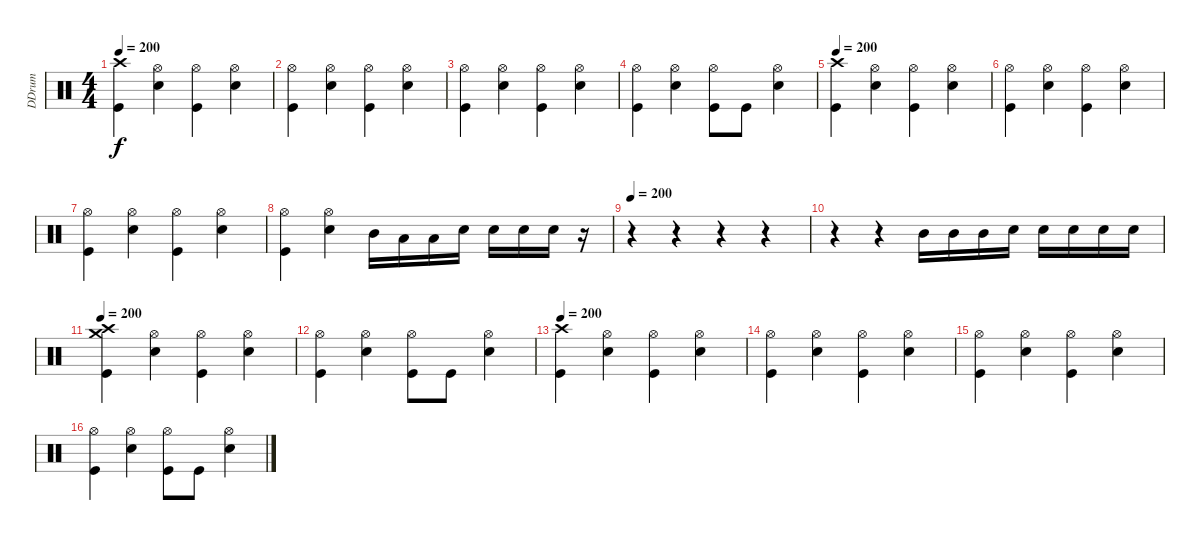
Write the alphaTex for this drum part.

\track ("DDrum" "DDrum") {instrument percussion}
\staff {score}
\articulation defaults
\ts (4 4)
\tempo 200
\clef neutral
\ks c
("Crash high (hit)" "Kick (hit)").4{dy f} ("Hi-Hat (open)" "Electric Snare (hit)").4 ("Hi-Hat (open)" "Kick (hit)").4 ("Hi-Hat (open)" "Electric Snare (hit)").4 |
("Hi-Hat (open)" "Kick (hit)").4 ("Hi-Hat (open)" "Electric Snare (hit)").4 ("Hi-Hat (open)" "Kick (hit)").4 ("Hi-Hat (open)" "Electric Snare (hit)").4 |
("Hi-Hat (open)" "Kick (hit)").4 ("Hi-Hat (open)" "Electric Snare (hit)").4 ("Hi-Hat (open)" "Kick (hit)").4 ("Hi-Hat (open)" "Electric Snare (hit)").4 |
("Hi-Hat (open)" "Kick (hit)").4 ("Hi-Hat (open)" "Electric Snare (hit)").4 ("Hi-Hat (open)" "Kick (hit)").8 "Kick (hit)".8 ("Hi-Hat (open)" "Electric Snare (hit)").4 |
\tempo 200
("Crash high (hit)" "Kick (hit)").4 ("Hi-Hat (open)" "Electric Snare (hit)").4 ("Hi-Hat (open)" "Kick (hit)").4 ("Hi-Hat (open)" "Electric Snare (hit)").4 |
("Hi-Hat (open)" "Kick (hit)").4 ("Hi-Hat (open)" "Electric Snare (hit)").4 ("Hi-Hat (open)" "Kick (hit)").4 ("Hi-Hat (open)" "Electric Snare (hit)").4 |
("Hi-Hat (open)" "Kick (hit)").4 ("Hi-Hat (open)" "Electric Snare (hit)").4 ("Hi-Hat (open)" "Kick (hit)").4 ("Hi-Hat (open)" "Electric Snare (hit)").4 |
("Hi-Hat (open)" "Kick (hit)").4 ("Hi-Hat (open)" "Electric Snare (hit)").4 "Mid Tom (hit)".16 "Low Tom (hit)".16 "Low Tom (hit)".16 "Electric Snare (hit)".16 "Electric Snare (hit)".16 "Electric Snare (hit)".16 "Electric Snare (hit)".16 r.16 |
\tempo 200
r.4 r.4 r.4 r.4 |
r.4 r.4 "Mid Tom (hit)".16 "Mid Tom (hit)".16 "Mid Tom (hit)".16 "Electric Snare (hit)".16 "Electric Snare (hit)".16 "Electric Snare (hit)".16 "Electric Snare (hit)".16 "Electric Snare (hit)".16 |
\tempo 200
("Crash medium (hit)" "Crash high (hit)" "Kick (hit)").4 ("Hi-Hat (open)" "Electric Snare (hit)").4 ("Hi-Hat (open)" "Kick (hit)").4 ("Hi-Hat (open)" "Electric Snare (hit)").4 |
("Hi-Hat (open)" "Kick (hit)").4 ("Hi-Hat (open)" "Electric Snare (hit)").4 ("Hi-Hat (open)" "Kick (hit)").8 "Kick (hit)".8 ("Hi-Hat (open)" "Electric Snare (hit)").4 |
\tempo 200
("Crash high (hit)" "Kick (hit)").4 ("Hi-Hat (open)" "Electric Snare (hit)").4 ("Hi-Hat (open)" "Kick (hit)").4 ("Hi-Hat (open)" "Electric Snare (hit)").4 |
("Hi-Hat (open)" "Kick (hit)").4 ("Hi-Hat (open)" "Electric Snare (hit)").4 ("Hi-Hat (open)" "Kick (hit)").4 ("Hi-Hat (open)" "Electric Snare (hit)").4 |
("Hi-Hat (open)" "Kick (hit)").4 ("Hi-Hat (open)" "Electric Snare (hit)").4 ("Hi-Hat (open)" "Kick (hit)").4 ("Hi-Hat (open)" "Electric Snare (hit)").4 |
("Hi-Hat (open)" "Kick (hit)").4 ("Hi-Hat (open)" "Electric Snare (hit)").4 ("Hi-Hat (open)" "Kick (hit)").8 "Kick (hit)".8 ("Hi-Hat (open)" "Electric Snare (hit)").4
